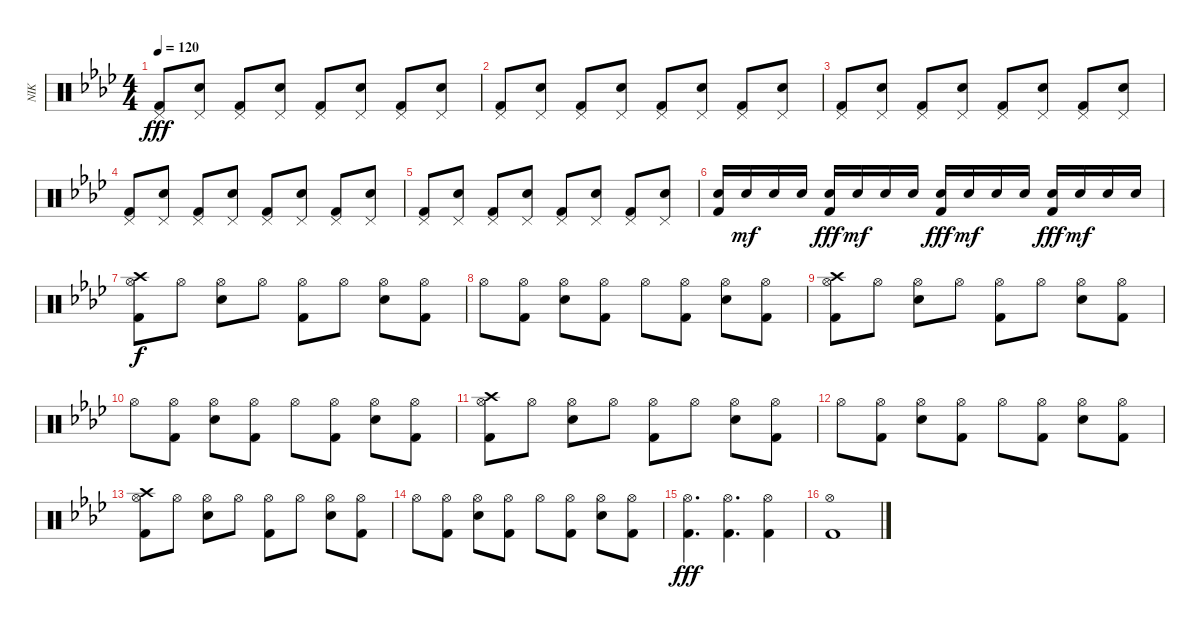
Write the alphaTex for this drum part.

\track ("NIK" "NIK") {instrument percussion}
\staff {score}
\articulation defaults
\ts (4 4)
\tempo 120
\clef neutral
\ks ab
("Pedal Hi-Hat (hit)" "Kick (hit) 2").8{dy fff} ("Pedal Hi-Hat (hit)" "Electric Snare (hit)").8 ("Pedal Hi-Hat (hit)" "Kick (hit) 2").8 ("Pedal Hi-Hat (hit)" "Electric Snare (hit)").8 ("Pedal Hi-Hat (hit)" "Kick (hit) 2").8 ("Pedal Hi-Hat (hit)" "Electric Snare (hit)").8 ("Pedal Hi-Hat (hit)" "Kick (hit) 2").8 ("Pedal Hi-Hat (hit)" "Electric Snare (hit)").8 |
("Pedal Hi-Hat (hit)" "Kick (hit) 2").8 ("Pedal Hi-Hat (hit)" "Electric Snare (hit)").8 ("Pedal Hi-Hat (hit)" "Kick (hit) 2").8 ("Pedal Hi-Hat (hit)" "Electric Snare (hit)").8 ("Pedal Hi-Hat (hit)" "Kick (hit) 2").8 ("Pedal Hi-Hat (hit)" "Electric Snare (hit)").8 ("Pedal Hi-Hat (hit)" "Kick (hit) 2").8 ("Pedal Hi-Hat (hit)" "Electric Snare (hit)").8 |
("Pedal Hi-Hat (hit)" "Kick (hit) 2").8 ("Pedal Hi-Hat (hit)" "Electric Snare (hit)").8 ("Pedal Hi-Hat (hit)" "Kick (hit) 2").8 ("Pedal Hi-Hat (hit)" "Electric Snare (hit)").8 ("Pedal Hi-Hat (hit)" "Kick (hit) 2").8 ("Pedal Hi-Hat (hit)" "Electric Snare (hit)").8 ("Pedal Hi-Hat (hit)" "Kick (hit) 2").8 ("Pedal Hi-Hat (hit)" "Electric Snare (hit)").8 |
("Pedal Hi-Hat (hit)" "Kick (hit) 2").8 ("Pedal Hi-Hat (hit)" "Electric Snare (hit)").8 ("Pedal Hi-Hat (hit)" "Kick (hit) 2").8 ("Pedal Hi-Hat (hit)" "Electric Snare (hit)").8 ("Pedal Hi-Hat (hit)" "Kick (hit) 2").8 ("Pedal Hi-Hat (hit)" "Electric Snare (hit)").8 ("Pedal Hi-Hat (hit)" "Kick (hit) 2").8 ("Pedal Hi-Hat (hit)" "Electric Snare (hit)").8 |
("Pedal Hi-Hat (hit)" "Kick (hit) 2").8 ("Pedal Hi-Hat (hit)" "Electric Snare (hit)").8 ("Pedal Hi-Hat (hit)" "Kick (hit) 2").8 ("Pedal Hi-Hat (hit)" "Electric Snare (hit)").8 ("Pedal Hi-Hat (hit)" "Kick (hit) 2").8 ("Pedal Hi-Hat (hit)" "Electric Snare (hit)").8 ("Pedal Hi-Hat (hit)" "Kick (hit) 2").8 ("Pedal Hi-Hat (hit)" "Electric Snare (hit)").8 |
("Electric Snare (hit)" "Kick (hit) 2").16 "Electric Snare (hit)".16{dy mf} "Electric Snare (hit)".16 "Electric Snare (hit)".16 ("Electric Snare (hit)" "Kick (hit) 2").16{dy fff} "Electric Snare (hit)".16{dy mf} "Electric Snare (hit)".16 "Electric Snare (hit)".16 ("Electric Snare (hit)" "Kick (hit) 2").16{dy fff} "Electric Snare (hit)".16{dy mf} "Electric Snare (hit)".16 "Electric Snare (hit)".16 ("Electric Snare (hit)" "Kick (hit) 2").16{dy fff} "Electric Snare (hit)".16{dy mf} "Electric Snare (hit)".16 "Electric Snare (hit)".16 |
("Crash high (hit)" "Hi-Hat (open)" "Kick (hit) 2").8{dy f} "Hi-Hat (open)".8 ("Hi-Hat (open)" "Electric Snare (hit)").8 "Hi-Hat (open)".8 ("Hi-Hat (open)" "Kick (hit) 2").8 "Hi-Hat (open)".8 ("Hi-Hat (open)" "Electric Snare (hit)").8 ("Hi-Hat (open)" "Kick (hit) 2").8 |
"Hi-Hat (open)".8 ("Hi-Hat (open)" "Kick (hit) 2").8 ("Hi-Hat (open)" "Electric Snare (hit)").8 ("Hi-Hat (open)" "Kick (hit) 2").8 "Hi-Hat (open)".8 ("Hi-Hat (open)" "Kick (hit) 2").8 ("Hi-Hat (open)" "Electric Snare (hit)").8 ("Hi-Hat (open)" "Kick (hit) 2").8 |
("Crash high (hit)" "Hi-Hat (open)" "Kick (hit) 2").8 "Hi-Hat (open)".8 ("Hi-Hat (open)" "Electric Snare (hit)").8 "Hi-Hat (open)".8 ("Hi-Hat (open)" "Kick (hit) 2").8 "Hi-Hat (open)".8 ("Hi-Hat (open)" "Electric Snare (hit)").8 ("Hi-Hat (open)" "Kick (hit) 2").8 |
"Hi-Hat (open)".8 ("Hi-Hat (open)" "Kick (hit) 2").8 ("Hi-Hat (open)" "Electric Snare (hit)").8 ("Hi-Hat (open)" "Kick (hit) 2").8 "Hi-Hat (open)".8 ("Hi-Hat (open)" "Kick (hit) 2").8 ("Hi-Hat (open)" "Electric Snare (hit)").8 ("Hi-Hat (open)" "Kick (hit) 2").8 |
("Crash high (hit)" "Hi-Hat (open)" "Kick (hit) 2").8 "Hi-Hat (open)".8 ("Hi-Hat (open)" "Electric Snare (hit)").8 "Hi-Hat (open)".8 ("Hi-Hat (open)" "Kick (hit) 2").8 "Hi-Hat (open)".8 ("Hi-Hat (open)" "Electric Snare (hit)").8 ("Hi-Hat (open)" "Kick (hit) 2").8 |
"Hi-Hat (open)".8 ("Hi-Hat (open)" "Kick (hit) 2").8 ("Hi-Hat (open)" "Electric Snare (hit)").8 ("Hi-Hat (open)" "Kick (hit) 2").8 "Hi-Hat (open)".8 ("Hi-Hat (open)" "Kick (hit) 2").8 ("Hi-Hat (open)" "Electric Snare (hit)").8 ("Hi-Hat (open)" "Kick (hit) 2").8 |
("Crash high (hit)" "Hi-Hat (open)" "Kick (hit) 2").8 "Hi-Hat (open)".8 ("Hi-Hat (open)" "Electric Snare (hit)").8 "Hi-Hat (open)".8 ("Hi-Hat (open)" "Kick (hit) 2").8 "Hi-Hat (open)".8 ("Hi-Hat (open)" "Electric Snare (hit)").8 ("Hi-Hat (open)" "Kick (hit) 2").8 |
"Hi-Hat (open)".8 ("Hi-Hat (open)" "Kick (hit) 2").8 ("Hi-Hat (open)" "Electric Snare (hit)").8 ("Hi-Hat (open)" "Kick (hit) 2").8 "Hi-Hat (open)".8 ("Hi-Hat (open)" "Kick (hit) 2").8 ("Hi-Hat (open)" "Electric Snare (hit)").8 ("Hi-Hat (open)" "Kick (hit) 2").8 |
("Kick (hit) 2" "Hi-Hat (open)").4{d dy fff} ("Kick (hit) 2" "Hi-Hat (open)").4{d} ("Kick (hit) 2" "Hi-Hat (open)").4 |
("Kick (hit) 2" "Hi-Hat (open)").1
